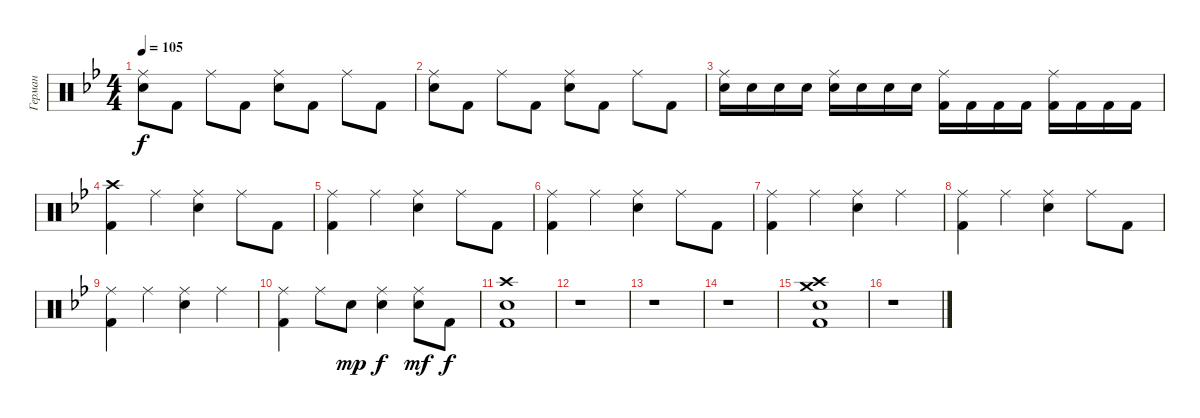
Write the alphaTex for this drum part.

\track ("Герман" "Герман") {instrument percussion}
\staff {score}
\articulation defaults
\ts (4 4)
\tempo 105
\clef neutral
\ks gminor
("Ride (middle)" "Electric Snare (hit)").8{dy f} "Kick (hit) 2".8 "Ride (middle)".8 "Kick (hit) 2".8 ("Ride (middle)" "Electric Snare (hit)").8 "Kick (hit) 2".8 "Ride (middle)".8 "Kick (hit) 2".8 |
("Ride (middle)" "Electric Snare (hit)").8 "Kick (hit) 2".8 "Ride (middle)".8 "Kick (hit) 2".8 ("Ride (middle)" "Electric Snare (hit)").8 "Kick (hit) 2".8 "Ride (middle)".8 "Kick (hit) 2".8 |
("Ride (middle)" "Electric Snare (hit)").16 "Electric Snare (hit)".16 "Electric Snare (hit)".16 "Electric Snare (hit)".16 ("Ride (middle)" "Electric Snare (hit)").16 "Electric Snare (hit)".16 "Electric Snare (hit)".16 "Electric Snare (hit)".16 ("Ride (middle)" "Kick (hit) 2").16 "Kick (hit) 2".16 "Kick (hit) 2".16 "Kick (hit) 2".16 ("Ride (middle)" "Kick (hit) 2").16 "Kick (hit) 2".16 "Kick (hit) 2".16 "Kick (hit) 2".16 |
("Crash high (hit)" "Kick (hit) 2").4 "Ride (middle)".4 ("Ride (middle)" "Electric Snare (hit)").4 "Ride (middle)".8 "Kick (hit) 2".8 |
("Ride (middle)" "Kick (hit) 2").4 "Ride (middle)".4 ("Ride (middle)" "Electric Snare (hit)").4 "Ride (middle)".8 "Kick (hit) 2".8 |
("Ride (middle)" "Kick (hit) 2").4 "Ride (middle)".4 ("Ride (middle)" "Electric Snare (hit)").4 "Ride (middle)".8 "Kick (hit) 2".8 |
("Ride (middle)" "Kick (hit) 2").4 "Ride (middle)".4 ("Ride (middle)" "Electric Snare (hit)").4 "Ride (middle)".4 |
("Ride (middle)" "Kick (hit) 2").4 "Ride (middle)".4 ("Ride (middle)" "Electric Snare (hit)").4 "Ride (middle)".8 "Kick (hit) 2".8 |
("Ride (middle)" "Kick (hit) 2").4 "Ride (middle)".4 ("Ride (middle)" "Electric Snare (hit)").4 "Ride (middle)".4 |
("Ride (middle)" "Kick (hit) 2").4 "Ride (middle)".8 "Electric Snare (hit)".8{dy mp} ("Ride (middle)" "Electric Snare (hit)").4{dy f} ("Ride (middle)" "Electric Snare (hit)").8{dy mf} "Kick (hit) 2".8{dy f} |
("Crash high (hit)" "Electric Snare (hit)" "Kick (hit) 2").1 |
r.1 |
r.1 |
r.1 |
("Crash high (hit)" "Crash medium (hit)" "Electric Snare (hit)" "Kick (hit) 2").1 |
r.1
